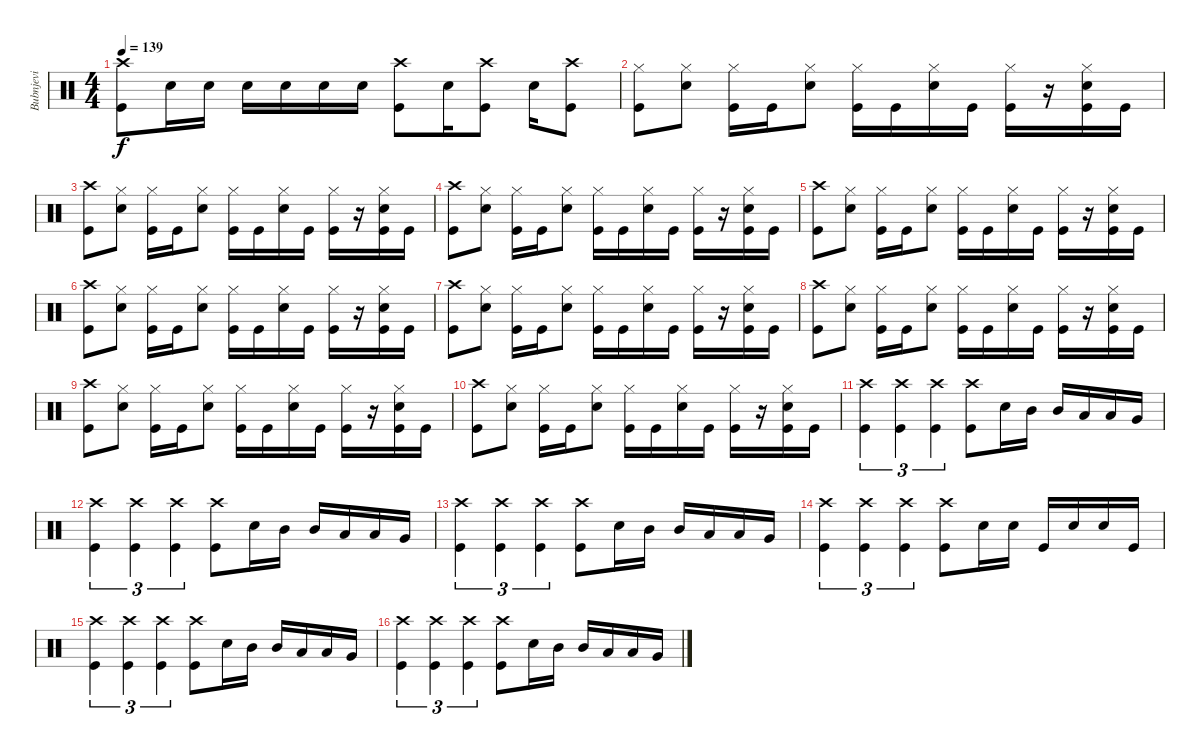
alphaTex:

\track ("Bubnjevi" "Bubnjevi") {instrument percussion}
\staff {score}
\articulation defaults
\ts (4 4)
\tempo 139
\clef neutral
\ks c
("Crash high (hit)" "Kick (hit)").8{dy f} "Snare (hit) 2".16 "Snare (hit) 2".16 "Snare (hit) 2".16 "Snare (hit) 2".16 "Snare (hit) 2".16 "Snare (hit) 2".16 ("Crash high (hit)" "Kick (hit)").8 "Snare (hit) 2".16 ("Crash high (hit)" "Kick (hit)").8 "Snare (hit) 2".16 ("Crash high (hit)" "Kick (hit)").8 |
("Hi-Hat (closed)" "Kick (hit)").8 ("Hi-Hat (closed)" "Snare (hit) 2").8 ("Hi-Hat (closed)" "Kick (hit)").16 "Kick (hit)".16 ("Hi-Hat (closed)" "Snare (hit) 2").8 ("Hi-Hat (closed)" "Kick (hit)").16 "Kick (hit)".16 ("Hi-Hat (closed)" "Snare (hit) 2").16 "Kick (hit)".16 ("Hi-Hat (closed)" "Kick (hit)").16 r.16 ("Hi-Hat (closed)" "Snare (hit) 2" "Kick (hit)").16 "Kick (hit)".16 |
("Crash high (hit)" "Kick (hit)").8 ("Hi-Hat (closed)" "Snare (hit) 2").8 ("Hi-Hat (closed)" "Kick (hit)").16 "Kick (hit)".16 ("Hi-Hat (closed)" "Snare (hit) 2").8 ("Hi-Hat (closed)" "Kick (hit)").16 "Kick (hit)".16 ("Hi-Hat (closed)" "Snare (hit) 2").16 "Kick (hit)".16 ("Hi-Hat (closed)" "Kick (hit)").16 r.16 ("Hi-Hat (closed)" "Snare (hit) 2" "Kick (hit)").16 "Kick (hit)".16 |
("Crash high (hit)" "Kick (hit)").8 ("Hi-Hat (closed)" "Snare (hit) 2").8 ("Hi-Hat (closed)" "Kick (hit)").16 "Kick (hit)".16 ("Hi-Hat (closed)" "Snare (hit) 2").8 ("Hi-Hat (closed)" "Kick (hit)").16 "Kick (hit)".16 ("Hi-Hat (closed)" "Snare (hit) 2").16 "Kick (hit)".16 ("Hi-Hat (closed)" "Kick (hit)").16 r.16 ("Hi-Hat (closed)" "Snare (hit) 2" "Kick (hit)").16 "Kick (hit)".16 |
("Crash high (hit)" "Kick (hit)").8 ("Hi-Hat (closed)" "Snare (hit) 2").8 ("Hi-Hat (closed)" "Kick (hit)").16 "Kick (hit)".16 ("Hi-Hat (closed)" "Snare (hit) 2").8 ("Hi-Hat (closed)" "Kick (hit)").16 "Kick (hit)".16 ("Hi-Hat (closed)" "Snare (hit) 2").16 "Kick (hit)".16 ("Hi-Hat (closed)" "Kick (hit)").16 r.16 ("Hi-Hat (closed)" "Snare (hit) 2" "Kick (hit)").16 "Kick (hit)".16 |
("Crash high (hit)" "Kick (hit)").8 ("Hi-Hat (closed)" "Snare (hit) 2").8 ("Hi-Hat (closed)" "Kick (hit)").16 "Kick (hit)".16 ("Hi-Hat (closed)" "Snare (hit) 2").8 ("Hi-Hat (closed)" "Kick (hit)").16 "Kick (hit)".16 ("Hi-Hat (closed)" "Snare (hit) 2").16 "Kick (hit)".16 ("Hi-Hat (closed)" "Kick (hit)").16 r.16 ("Hi-Hat (closed)" "Snare (hit) 2" "Kick (hit)").16 "Kick (hit)".16 |
("Crash high (hit)" "Kick (hit)").8 ("Hi-Hat (closed)" "Snare (hit) 2").8 ("Hi-Hat (closed)" "Kick (hit)").16 "Kick (hit)".16 ("Hi-Hat (closed)" "Snare (hit) 2").8 ("Hi-Hat (closed)" "Kick (hit)").16 "Kick (hit)".16 ("Hi-Hat (closed)" "Snare (hit) 2").16 "Kick (hit)".16 ("Hi-Hat (closed)" "Kick (hit)").16 r.16 ("Hi-Hat (closed)" "Snare (hit) 2" "Kick (hit)").16 "Kick (hit)".16 |
("Crash high (hit)" "Kick (hit)").8 ("Hi-Hat (closed)" "Snare (hit) 2").8 ("Hi-Hat (closed)" "Kick (hit)").16 "Kick (hit)".16 ("Hi-Hat (closed)" "Snare (hit) 2").8 ("Hi-Hat (closed)" "Kick (hit)").16 "Kick (hit)".16 ("Hi-Hat (closed)" "Snare (hit) 2").16 "Kick (hit)".16 ("Hi-Hat (closed)" "Kick (hit)").16 r.16 ("Hi-Hat (closed)" "Snare (hit) 2" "Kick (hit)").16 "Kick (hit)".16 |
("Crash high (hit)" "Kick (hit)").8 ("Hi-Hat (closed)" "Snare (hit) 2").8 ("Hi-Hat (closed)" "Kick (hit)").16 "Kick (hit)".16 ("Hi-Hat (closed)" "Snare (hit) 2").8 ("Hi-Hat (closed)" "Kick (hit)").16 "Kick (hit)".16 ("Hi-Hat (closed)" "Snare (hit) 2").16 "Kick (hit)".16 ("Hi-Hat (closed)" "Kick (hit)").16 r.16 ("Hi-Hat (closed)" "Snare (hit) 2" "Kick (hit)").16 "Kick (hit)".16 |
("Crash high (hit)" "Kick (hit)").8 ("Hi-Hat (closed)" "Snare (hit) 2").8 ("Hi-Hat (closed)" "Kick (hit)").16 "Kick (hit)".16 ("Hi-Hat (closed)" "Snare (hit) 2").8 ("Hi-Hat (closed)" "Kick (hit)").16 "Kick (hit)".16 ("Hi-Hat (closed)" "Snare (hit) 2").16 "Kick (hit)".16 ("Hi-Hat (closed)" "Kick (hit)").16 r.16 ("Hi-Hat (closed)" "Snare (hit) 2" "Kick (hit)").16 "Kick (hit)".16 |
("Crash high (hit)" "Kick (hit)").4{tu (3 2)} ("Crash high (hit)" "Kick (hit)").4{tu (3 2)} ("Crash high (hit)" "Kick (hit)").4{tu (3 2)} ("Crash high (hit)" "Kick (hit)").8 "Snare (hit) 2".16 "Mid Tom (hit)".16 "Mid Tom (hit)".16 "Low Tom (hit)".16 "Low Tom (hit)".16 "Very Low Tom (hit)".16 |
("Crash high (hit)" "Kick (hit)").4{tu (3 2)} ("Crash high (hit)" "Kick (hit)").4{tu (3 2)} ("Crash high (hit)" "Kick (hit)").4{tu (3 2)} ("Crash high (hit)" "Kick (hit)").8 "Snare (hit) 2".16 "Mid Tom (hit)".16 "Mid Tom (hit)".16 "Low Tom (hit)".16 "Low Tom (hit)".16 "Very Low Tom (hit)".16 |
("Crash high (hit)" "Kick (hit)").4{tu (3 2)} ("Crash high (hit)" "Kick (hit)").4{tu (3 2)} ("Crash high (hit)" "Kick (hit)").4{tu (3 2)} ("Crash high (hit)" "Kick (hit)").8 "Snare (hit) 2".16 "Mid Tom (hit)".16 "Mid Tom (hit)".16 "Low Tom (hit)".16 "Low Tom (hit)".16 "Very Low Tom (hit)".16 |
("Crash high (hit)" "Kick (hit)").4{tu (3 2)} ("Crash high (hit)" "Kick (hit)").4{tu (3 2)} ("Crash high (hit)" "Kick (hit)").4{tu (3 2)} ("Crash high (hit)" "Kick (hit)").8 "Snare (hit) 2".16 "Snare (hit) 2".16 "Kick (hit)".16 "Snare (hit) 2".16 "Snare (hit) 2".16 "Kick (hit)".16 |
("Crash high (hit)" "Kick (hit)").4{tu (3 2)} ("Crash high (hit)" "Kick (hit)").4{tu (3 2)} ("Crash high (hit)" "Kick (hit)").4{tu (3 2)} ("Crash high (hit)" "Kick (hit)").8 "Snare (hit) 2".16 "Mid Tom (hit)".16 "Mid Tom (hit)".16 "Low Tom (hit)".16 "Low Tom (hit)".16 "Very Low Tom (hit)".16 |
("Crash high (hit)" "Kick (hit)").4{tu (3 2)} ("Crash high (hit)" "Kick (hit)").4{tu (3 2)} ("Crash high (hit)" "Kick (hit)").4{tu (3 2)} ("Crash high (hit)" "Kick (hit)").8 "Snare (hit) 2".16 "Mid Tom (hit)".16 "Mid Tom (hit)".16 "Low Tom (hit)".16 "Low Tom (hit)".16 "Very Low Tom (hit)".16
